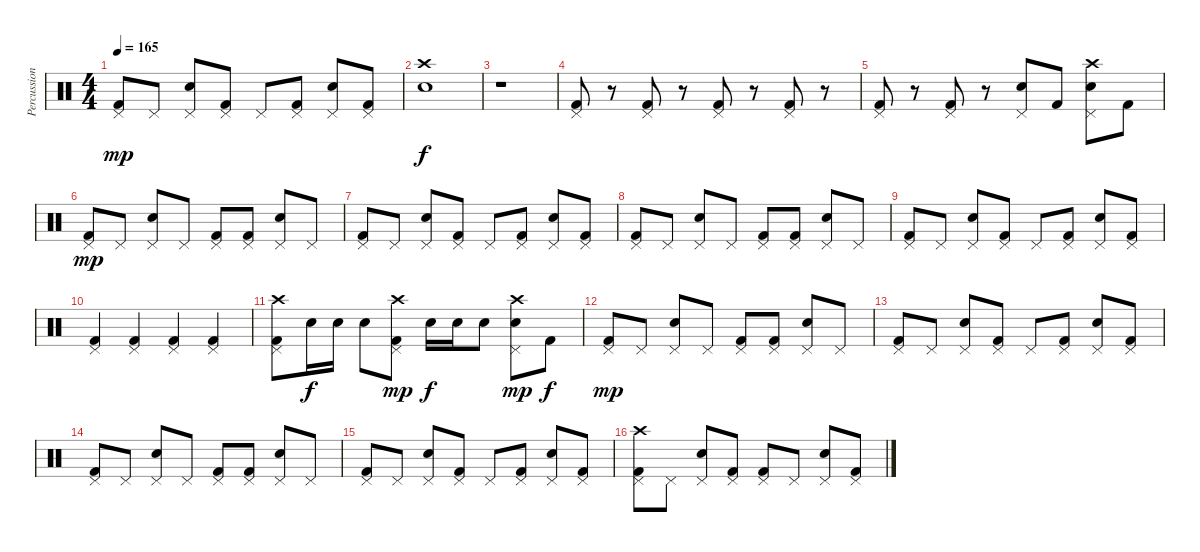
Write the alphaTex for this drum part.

\track ("Percussion" "Percussion") {instrument percussion}
\staff {score}
\articulation defaults
\ts (4 4)
\tempo 165
\clef neutral
\ks c
("Pedal Hi-Hat (hit)" "Kick (hit) 2").8{dy mp} "Pedal Hi-Hat (hit)".8 ("Pedal Hi-Hat (hit)" "Snare (hit) 2").8 ("Pedal Hi-Hat (hit)" "Kick (hit) 2").8 "Pedal Hi-Hat (hit)".8 ("Pedal Hi-Hat (hit)" "Kick (hit) 2").8 ("Pedal Hi-Hat (hit)" "Snare (hit) 2").8 ("Pedal Hi-Hat (hit)" "Kick (hit) 2").8 |
("Crash high (hit)" "Snare (hit) 2").1{dy f} |
r.1 |
("Pedal Hi-Hat (hit)" "Kick (hit) 2").8 r.8 ("Pedal Hi-Hat (hit)" "Kick (hit) 2").8 r.8 ("Pedal Hi-Hat (hit)" "Kick (hit) 2").8 r.8 ("Pedal Hi-Hat (hit)" "Kick (hit) 2").8 r.8 |
("Pedal Hi-Hat (hit)" "Kick (hit) 2").8 r.8 ("Pedal Hi-Hat (hit)" "Kick (hit) 2").8 r.8 ("Snare (hit) 2" "Pedal Hi-Hat (hit)").8 "Kick (hit) 2".8 ("Crash high (hit)" "Snare (hit) 2" "Pedal Hi-Hat (hit)").8 "Kick (hit) 2".8 |
("Pedal Hi-Hat (hit)" "Kick (hit) 2").8{dy mp} "Pedal Hi-Hat (hit)".8 ("Pedal Hi-Hat (hit)" "Snare (hit) 2").8 "Pedal Hi-Hat (hit)".8 ("Pedal Hi-Hat (hit)" "Kick (hit) 2").8 ("Pedal Hi-Hat (hit)" "Kick (hit) 2").8 ("Pedal Hi-Hat (hit)" "Snare (hit) 2").8 "Pedal Hi-Hat (hit)".8 |
("Pedal Hi-Hat (hit)" "Kick (hit) 2").8 "Pedal Hi-Hat (hit)".8 ("Pedal Hi-Hat (hit)" "Snare (hit) 2").8 ("Pedal Hi-Hat (hit)" "Kick (hit) 2").8 "Pedal Hi-Hat (hit)".8 ("Pedal Hi-Hat (hit)" "Kick (hit) 2").8 ("Pedal Hi-Hat (hit)" "Snare (hit) 2").8 ("Pedal Hi-Hat (hit)" "Kick (hit) 2").8 |
("Pedal Hi-Hat (hit)" "Kick (hit) 2").8 "Pedal Hi-Hat (hit)".8 ("Pedal Hi-Hat (hit)" "Snare (hit) 2").8 "Pedal Hi-Hat (hit)".8 ("Pedal Hi-Hat (hit)" "Kick (hit) 2").8 ("Pedal Hi-Hat (hit)" "Kick (hit) 2").8 ("Pedal Hi-Hat (hit)" "Snare (hit) 2").8 "Pedal Hi-Hat (hit)".8 |
("Pedal Hi-Hat (hit)" "Kick (hit) 2").8 "Pedal Hi-Hat (hit)".8 ("Pedal Hi-Hat (hit)" "Snare (hit) 2").8 ("Pedal Hi-Hat (hit)" "Kick (hit) 2").8 "Pedal Hi-Hat (hit)".8 ("Pedal Hi-Hat (hit)" "Kick (hit) 2").8 ("Pedal Hi-Hat (hit)" "Snare (hit) 2").8 ("Pedal Hi-Hat (hit)" "Kick (hit) 2").8 |
("Pedal Hi-Hat (hit)" "Kick (hit) 2").4 ("Pedal Hi-Hat (hit)" "Kick (hit) 2").4 ("Pedal Hi-Hat (hit)" "Kick (hit) 2").4 ("Pedal Hi-Hat (hit)" "Kick (hit) 2").4 |
("Pedal Hi-Hat (hit)" "Kick (hit) 2" "Crash high (hit)").8 "Snare (hit) 2".16{dy f} "Snare (hit) 2".16 "Snare (hit) 2".8 ("Pedal Hi-Hat (hit)" "Kick (hit) 2" "Crash high (hit)").8{dy mp} "Snare (hit) 2".16{dy f} "Snare (hit) 2".16 "Snare (hit) 2".8 ("Pedal Hi-Hat (hit)" "Snare (hit) 2" "Crash high (hit)").8{dy mp} "Kick (hit) 2".8{dy f} |
("Pedal Hi-Hat (hit)" "Kick (hit) 2").8{dy mp} "Pedal Hi-Hat (hit)".8 ("Pedal Hi-Hat (hit)" "Snare (hit) 2").8 "Pedal Hi-Hat (hit)".8 ("Pedal Hi-Hat (hit)" "Kick (hit) 2").8 ("Pedal Hi-Hat (hit)" "Kick (hit) 2").8 ("Pedal Hi-Hat (hit)" "Snare (hit) 2").8 "Pedal Hi-Hat (hit)".8 |
("Pedal Hi-Hat (hit)" "Kick (hit) 2").8 "Pedal Hi-Hat (hit)".8 ("Pedal Hi-Hat (hit)" "Snare (hit) 2").8 ("Pedal Hi-Hat (hit)" "Kick (hit) 2").8 "Pedal Hi-Hat (hit)".8 ("Pedal Hi-Hat (hit)" "Kick (hit) 2").8 ("Pedal Hi-Hat (hit)" "Snare (hit) 2").8 ("Pedal Hi-Hat (hit)" "Kick (hit) 2").8 |
("Pedal Hi-Hat (hit)" "Kick (hit) 2").8 "Pedal Hi-Hat (hit)".8 ("Pedal Hi-Hat (hit)" "Snare (hit) 2").8 "Pedal Hi-Hat (hit)".8 ("Pedal Hi-Hat (hit)" "Kick (hit) 2").8 ("Pedal Hi-Hat (hit)" "Kick (hit) 2").8 ("Pedal Hi-Hat (hit)" "Snare (hit) 2").8 "Pedal Hi-Hat (hit)".8 |
("Pedal Hi-Hat (hit)" "Kick (hit) 2").8 "Pedal Hi-Hat (hit)".8 ("Pedal Hi-Hat (hit)" "Snare (hit) 2").8 ("Pedal Hi-Hat (hit)" "Kick (hit) 2").8 "Pedal Hi-Hat (hit)".8 ("Pedal Hi-Hat (hit)" "Kick (hit) 2").8 ("Pedal Hi-Hat (hit)" "Snare (hit) 2").8 ("Pedal Hi-Hat (hit)" "Kick (hit) 2").8 |
("Crash high (hit)" "Pedal Hi-Hat (hit)" "Kick (hit) 2").8 "Pedal Hi-Hat (hit)".8 ("Snare (hit) 2" "Pedal Hi-Hat (hit)").8 ("Kick (hit) 2" "Pedal Hi-Hat (hit)").8 ("Kick (hit) 2" "Pedal Hi-Hat (hit)").8 "Pedal Hi-Hat (hit)".8 ("Snare (hit) 2" "Pedal Hi-Hat (hit)").8 ("Kick (hit) 2" "Pedal Hi-Hat (hit)").8
